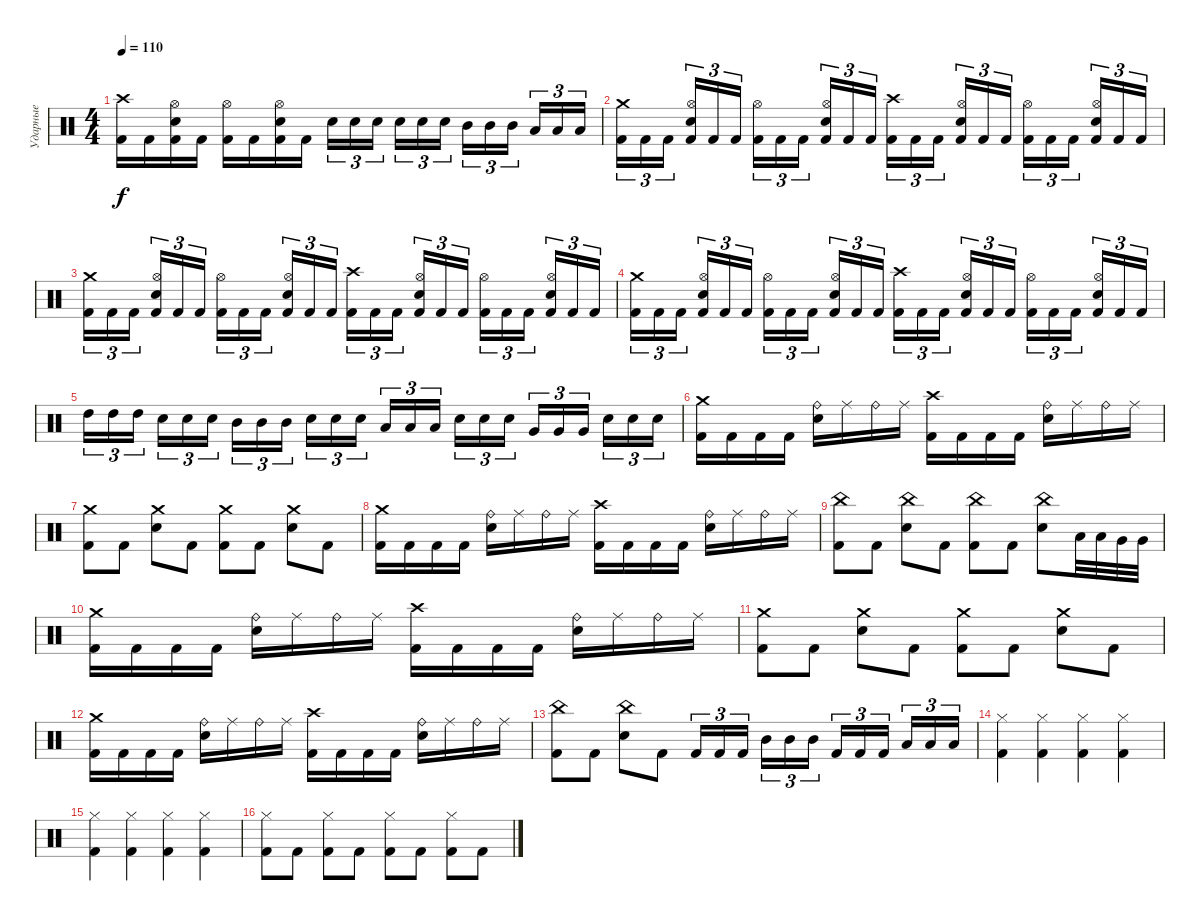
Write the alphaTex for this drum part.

\track ("Ударные" "Ударные") {instrument percussion}
\staff {score}
\articulation defaults
\ts (4 4)
\tempo 110
\clef neutral
\ks c
("Crash high (hit)" "Kick (hit) 2").16{dy f} "Kick (hit) 2".16 ("Hi-Hat (open)" "Electric Snare (hit)" "Kick (hit) 2").16 "Kick (hit) 2".16 ("Hi-Hat (open)" "Kick (hit) 2").16 "Kick (hit) 2".16 ("Hi-Hat (open)" "Electric Snare (hit)" "Kick (hit) 2").16 "Kick (hit) 2".16 "Electric Snare (hit)".16{tu (3 2)} "Electric Snare (hit)".16{tu (3 2)} "Electric Snare (hit)".16{tu (3 2) beam splitsecondary} "Electric Snare (hit)".16{tu (3 2)} "Electric Snare (hit)".16{tu (3 2)} "Electric Snare (hit)".16{tu (3 2)} "Mid Tom (hit)".16{tu (3 2)} "Mid Tom (hit)".16{tu (3 2)} "Mid Tom (hit)".16{tu (3 2) beam splitsecondary} "Low Tom (hit)".16{tu (3 2)} "Low Tom (hit)".16{tu (3 2)} "Low Tom (hit)".16{tu (3 2)} |
("Crash medium (hit)" "Kick (hit) 2").16{tu (3 2)} "Kick (hit) 2".16{tu (3 2)} "Kick (hit) 2".16{tu (3 2) beam splitsecondary} ("Hi-Hat (open)" "Electric Snare (hit)" "Kick (hit) 2").16{tu (3 2)} "Kick (hit) 2".16{tu (3 2)} "Kick (hit) 2".16{tu (3 2)} ("Hi-Hat (open)" "Kick (hit) 2").16{tu (3 2)} "Kick (hit) 2".16{tu (3 2)} "Kick (hit) 2".16{tu (3 2) beam splitsecondary} ("Hi-Hat (open)" "Electric Snare (hit)" "Kick (hit) 2").16{tu (3 2)} "Kick (hit) 2".16{tu (3 2)} "Kick (hit) 2".16{tu (3 2)} ("Crash high (hit)" "Kick (hit) 2").16{tu (3 2)} "Kick (hit) 2".16{tu (3 2)} "Kick (hit) 2".16{tu (3 2) beam splitsecondary} ("Hi-Hat (open)" "Electric Snare (hit)" "Kick (hit) 2").16{tu (3 2)} "Kick (hit) 2".16{tu (3 2)} "Kick (hit) 2".16{tu (3 2)} ("Hi-Hat (open)" "Kick (hit) 2").16{tu (3 2)} "Kick (hit) 2".16{tu (3 2)} "Kick (hit) 2".16{tu (3 2) beam splitsecondary} ("Hi-Hat (open)" "Electric Snare (hit)" "Kick (hit) 2").16{tu (3 2)} "Kick (hit) 2".16{tu (3 2)} "Kick (hit) 2".16{tu (3 2)} |
("Crash medium (hit)" "Kick (hit) 2").16{tu (3 2)} "Kick (hit) 2".16{tu (3 2)} "Kick (hit) 2".16{tu (3 2) beam splitsecondary} ("Hi-Hat (open)" "Electric Snare (hit)" "Kick (hit) 2").16{tu (3 2)} "Kick (hit) 2".16{tu (3 2)} "Kick (hit) 2".16{tu (3 2)} ("Hi-Hat (open)" "Kick (hit) 2").16{tu (3 2)} "Kick (hit) 2".16{tu (3 2)} "Kick (hit) 2".16{tu (3 2) beam splitsecondary} ("Hi-Hat (open)" "Electric Snare (hit)" "Kick (hit) 2").16{tu (3 2)} "Kick (hit) 2".16{tu (3 2)} "Kick (hit) 2".16{tu (3 2)} ("Crash high (hit)" "Kick (hit) 2").16{tu (3 2)} "Kick (hit) 2".16{tu (3 2)} "Kick (hit) 2".16{tu (3 2) beam splitsecondary} ("Hi-Hat (open)" "Electric Snare (hit)" "Kick (hit) 2").16{tu (3 2)} "Kick (hit) 2".16{tu (3 2)} "Kick (hit) 2".16{tu (3 2)} ("Hi-Hat (open)" "Kick (hit) 2").16{tu (3 2)} "Kick (hit) 2".16{tu (3 2)} "Kick (hit) 2".16{tu (3 2) beam splitsecondary} ("Hi-Hat (open)" "Electric Snare (hit)" "Kick (hit) 2").16{tu (3 2)} "Kick (hit) 2".16{tu (3 2)} "Kick (hit) 2".16{tu (3 2)} |
("Crash medium (hit)" "Kick (hit) 2").16{tu (3 2)} "Kick (hit) 2".16{tu (3 2)} "Kick (hit) 2".16{tu (3 2) beam splitsecondary} ("Hi-Hat (open)" "Electric Snare (hit)" "Kick (hit) 2").16{tu (3 2)} "Kick (hit) 2".16{tu (3 2)} "Kick (hit) 2".16{tu (3 2)} ("Hi-Hat (open)" "Kick (hit) 2").16{tu (3 2)} "Kick (hit) 2".16{tu (3 2)} "Kick (hit) 2".16{tu (3 2) beam splitsecondary} ("Hi-Hat (open)" "Electric Snare (hit)" "Kick (hit) 2").16{tu (3 2)} "Kick (hit) 2".16{tu (3 2)} "Kick (hit) 2".16{tu (3 2)} ("Crash high (hit)" "Kick (hit) 2").16{tu (3 2)} "Kick (hit) 2".16{tu (3 2)} "Kick (hit) 2".16{tu (3 2) beam splitsecondary} ("Hi-Hat (open)" "Electric Snare (hit)" "Kick (hit) 2").16{tu (3 2)} "Kick (hit) 2".16{tu (3 2)} "Kick (hit) 2".16{tu (3 2)} ("Hi-Hat (open)" "Kick (hit) 2").16{tu (3 2)} "Kick (hit) 2".16{tu (3 2)} "Kick (hit) 2".16{tu (3 2) beam splitsecondary} ("Hi-Hat (open)" "Electric Snare (hit)" "Kick (hit) 2").16{tu (3 2)} "Kick (hit) 2".16{tu (3 2)} "Kick (hit) 2".16{tu (3 2)} |
"High Tom (hit)".16{tu (3 2)} "High Tom (hit)".16{tu (3 2)} "High Tom (hit)".16{tu (3 2) beam splitsecondary} "Electric Snare (hit)".16{tu (3 2)} "Electric Snare (hit)".16{tu (3 2)} "Electric Snare (hit)".16{tu (3 2)} "Mid Tom (hit)".16{tu (3 2)} "Mid Tom (hit)".16{tu (3 2)} "Mid Tom (hit)".16{tu (3 2) beam splitsecondary} "Electric Snare (hit)".16{tu (3 2)} "Electric Snare (hit)".16{tu (3 2)} "Electric Snare (hit)".16{tu (3 2)} "Low Tom (hit)".16{tu (3 2)} "Low Tom (hit)".16{tu (3 2)} "Low Tom (hit)".16{tu (3 2) beam splitsecondary} "Electric Snare (hit)".16{tu (3 2)} "Electric Snare (hit)".16{tu (3 2)} "Electric Snare (hit)".16{tu (3 2)} "Very Low Tom (hit)".16{tu (3 2)} "Very Low Tom (hit)".16{tu (3 2)} "Very Low Tom (hit)".16{tu (3 2) beam splitsecondary} "Electric Snare (hit)".16{tu (3 2)} "Electric Snare (hit)".16{tu (3 2)} "Electric Snare (hit)".16{tu (3 2)} |
("Crash medium (hit)" "Kick (hit) 2").16 "Kick (hit) 2".16 "Kick (hit) 2".16 "Kick (hit) 2".16 ("Ride (bell)" "Electric Snare (hit)").16 "Ride (middle)".16 "Ride (bell)".16 "Ride (middle)".16 ("Crash high (hit)" "Kick (hit) 2").16 "Kick (hit) 2".16 "Kick (hit) 2".16 "Kick (hit) 2".16 ("Ride (bell)" "Electric Snare (hit)").16 "Ride (middle)".16 "Ride (bell)".16 "Ride (middle)".16 |
("Crash medium (hit)" "Kick (hit) 2").8 "Kick (hit) 2".8 ("Crash medium (hit)" "Electric Snare (hit)").8 "Kick (hit) 2".8 ("Crash medium (hit)" "Kick (hit) 2").8 "Kick (hit) 2".8 ("Crash medium (hit)" "Electric Snare (hit)").8 "Kick (hit) 2".8 |
("Crash medium (hit)" "Kick (hit) 2").16 "Kick (hit) 2".16 "Kick (hit) 2".16 "Kick (hit) 2".16 ("Ride (bell)" "Electric Snare (hit)").16 "Ride (middle)".16 "Ride (bell)".16 "Ride (middle)".16 ("Crash high (hit)" "Kick (hit) 2").16 "Kick (hit) 2".16 "Kick (hit) 2".16 "Kick (hit) 2".16 ("Ride (bell)" "Electric Snare (hit)").16 "Ride (middle)".16 "Ride (bell)".16 "Ride (middle)".16 |
("China (hit)" "Kick (hit) 2").8 "Kick (hit) 2".8 ("China (hit)" "Electric Snare (hit)").8 "Kick (hit) 2".8 ("China (hit)" "Kick (hit) 2").8 "Kick (hit) 2".8 ("China (hit)" "Electric Snare (hit)").8 "Low Tom (hit)".32 "Low Tom (hit)".32 "Very Low Tom (hit)".32 "Very Low Tom (hit)".32 |
("Crash medium (hit)" "Kick (hit) 2").16 "Kick (hit) 2".16 "Kick (hit) 2".16 "Kick (hit) 2".16 ("Ride (bell)" "Electric Snare (hit)").16 "Ride (middle)".16 "Ride (bell)".16 "Ride (middle)".16 ("Crash high (hit)" "Kick (hit) 2").16 "Kick (hit) 2".16 "Kick (hit) 2".16 "Kick (hit) 2".16 ("Ride (bell)" "Electric Snare (hit)").16 "Ride (middle)".16 "Ride (bell)".16 "Ride (middle)".16 |
("Crash medium (hit)" "Kick (hit) 2").8 "Kick (hit) 2".8 ("Crash medium (hit)" "Electric Snare (hit)").8 "Kick (hit) 2".8 ("Crash medium (hit)" "Kick (hit) 2").8 "Kick (hit) 2".8 ("Crash medium (hit)" "Electric Snare (hit)").8 "Kick (hit) 2".8 |
("Crash medium (hit)" "Kick (hit) 2").16 "Kick (hit) 2".16 "Kick (hit) 2".16 "Kick (hit) 2".16 ("Ride (bell)" "Electric Snare (hit)").16 "Ride (middle)".16 "Ride (bell)".16 "Ride (middle)".16 ("Crash high (hit)" "Kick (hit) 2").16 "Kick (hit) 2".16 "Kick (hit) 2".16 "Kick (hit) 2".16 ("Ride (bell)" "Electric Snare (hit)").16 "Ride (middle)".16 "Ride (bell)".16 "Ride (middle)".16 |
("China (hit)" "Kick (hit) 2").8 "Kick (hit) 2".8 ("China (hit)" "Electric Snare (hit)").8 "Kick (hit) 2".8 "Kick (hit) 2".16{tu (3 2)} "Kick (hit) 2".16{tu (3 2)} "Kick (hit) 2".16{tu (3 2) beam splitsecondary} "Mid Tom (hit)".16{tu (3 2)} "Mid Tom (hit)".16{tu (3 2)} "Mid Tom (hit)".16{tu (3 2)} "Kick (hit) 2".16{tu (3 2)} "Kick (hit) 2".16{tu (3 2)} "Kick (hit) 2".16{tu (3 2) beam splitsecondary} "Low Tom (hit)".16{tu (3 2)} "Low Tom (hit)".16{tu (3 2)} "Low Tom (hit)".16{tu (3 2)} |
("Hi-Hat (closed)" "Kick (hit) 2").4 ("Hi-Hat (closed)" "Kick (hit) 2").4 ("Hi-Hat (closed)" "Kick (hit) 2").4 ("Hi-Hat (closed)" "Kick (hit) 2").4 |
("Hi-Hat (closed)" "Kick (hit) 2").4 ("Hi-Hat (closed)" "Kick (hit) 2").4 ("Hi-Hat (closed)" "Kick (hit) 2").4 ("Hi-Hat (closed)" "Kick (hit) 2").4 |
("Hi-Hat (closed)" "Kick (hit) 2").8 "Kick (hit) 2".8 ("Hi-Hat (closed)" "Kick (hit) 2").8 "Kick (hit) 2".8 ("Hi-Hat (closed)" "Kick (hit) 2").8 "Kick (hit) 2".8 ("Hi-Hat (closed)" "Kick (hit) 2").8 "Kick (hit) 2".8
